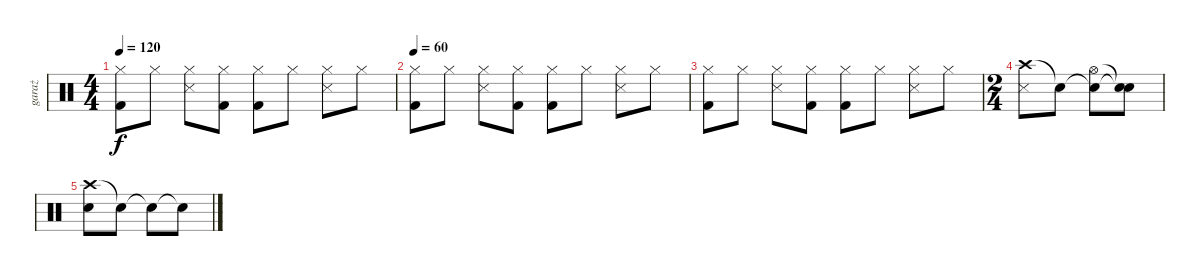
\track ("garaż" "garaż") {instrument percussion}
\staff {score}
\articulation defaults
\ts (4 4)
\tempo 120
\clef neutral
\ks c
("Hi-Hat (closed)" "Kick (hit) 2").8{dy f} "Hi-Hat (closed)".8 ("Hi-Hat (closed)" "Snare (side stick) 3").8 ("Hi-Hat (closed)" "Kick (hit) 2").8 ("Hi-Hat (closed)" "Kick (hit) 2").8 "Hi-Hat (closed)".8 ("Hi-Hat (closed)" "Snare (side stick) 3").8 "Hi-Hat (closed)".8 |
\tempo 60
("Hi-Hat (closed)" "Kick (hit) 2").8 "Hi-Hat (closed)".8 ("Hi-Hat (closed)" "Snare (side stick) 3").8 ("Hi-Hat (closed)" "Kick (hit) 2").8 ("Hi-Hat (closed)" "Kick (hit) 2").8 "Hi-Hat (closed)".8 ("Hi-Hat (closed)" "Snare (side stick) 3").8 "Hi-Hat (closed)".8 |
("Hi-Hat (closed)" "Kick (hit) 2").8 "Hi-Hat (closed)".8 ("Hi-Hat (closed)" "Snare (side stick) 3").8 ("Hi-Hat (closed)" "Kick (hit) 2").8 ("Hi-Hat (closed)" "Kick (hit) 2").8 "Hi-Hat (closed)".8 ("Hi-Hat (closed)" "Snare (side stick) 3").8 "Hi-Hat (closed)".8 |
\ts (2 4)
("Crash high (hit)" "Snare (side stick) 3").8 "Snare (hit)"{t}.8 ("Snare (hit)"{t} "Hi-Hat (open)").8 ("Snare (hit)"{t} "Snare (hit)"{t}).8 |
("Crash high (hit)" "Snare (hit) 2").8 "Snare (hit)"{t}.8 "Snare (hit)"{t}.8 "Snare (hit)"{t}.8
